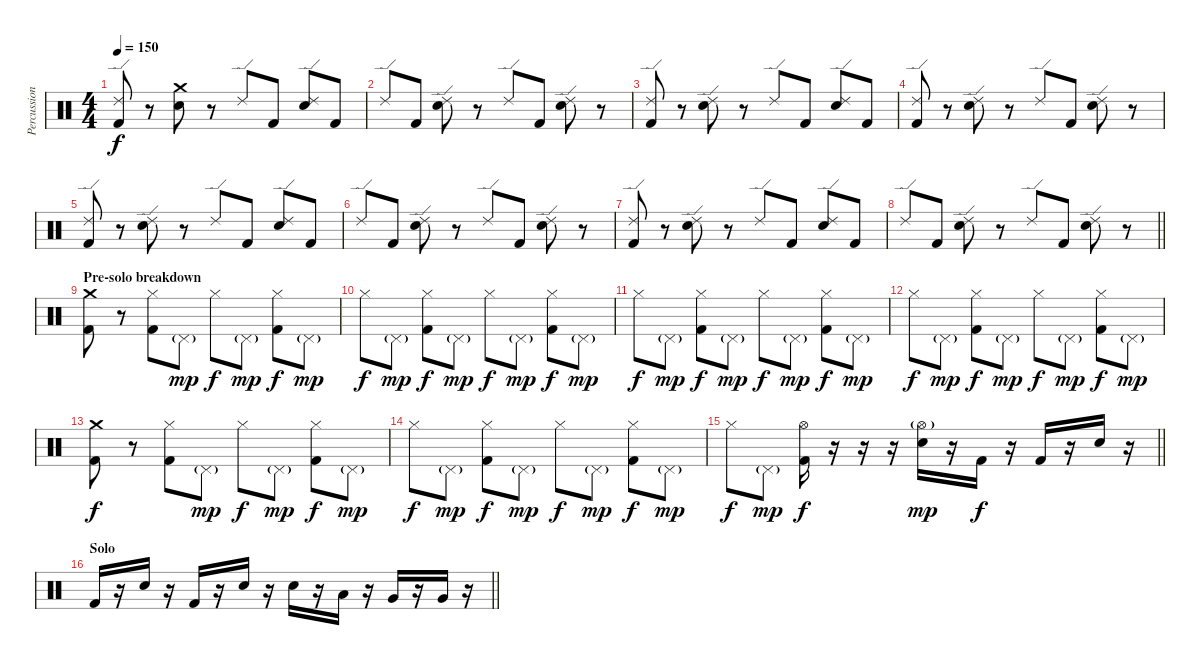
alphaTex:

\track ("Percussion" "Percussion") {instrument percussion}
\staff {score}
\articulation defaults
\ts (4 4)
\tempo 150
\clef neutral
\ks c
("Ride (edge) 2" "Kick (hit) 2").8{dy f} r.8 ("Crash medium (hit)" "Electric Snare (hit)").8 r.8 "Ride (edge) 2".8 "Kick (hit) 2".8 ("Ride (edge) 2" "Electric Snare (hit)").8 "Kick (hit) 2".8 |
"Ride (edge) 2".8 "Kick (hit) 2".8 ("Ride (edge) 2" "Electric Snare (hit)").8 r.8 "Ride (edge) 2".8 "Kick (hit) 2".8 ("Ride (edge) 2" "Electric Snare (hit)").8 r.8 |
("Ride (edge) 2" "Kick (hit) 2").8 r.8 ("Ride (edge) 2" "Electric Snare (hit)").8 r.8 "Ride (edge) 2".8 "Kick (hit) 2".8 ("Ride (edge) 2" "Electric Snare (hit)").8 "Kick (hit) 2".8 |
("Ride (edge) 2" "Kick (hit) 2").8 r.8 ("Ride (edge) 2" "Electric Snare (hit)").8 r.8 "Ride (edge) 2".8 "Kick (hit) 2".8 ("Ride (edge) 2" "Electric Snare (hit)").8 r.8 |
("Ride (edge) 2" "Kick (hit) 2").8 r.8 ("Ride (edge) 2" "Electric Snare (hit)").8 r.8 "Ride (edge) 2".8 "Kick (hit) 2".8 ("Ride (edge) 2" "Electric Snare (hit)").8 "Kick (hit) 2".8 |
"Ride (edge) 2".8 "Kick (hit) 2".8 ("Ride (edge) 2" "Electric Snare (hit)").8 r.8 "Ride (edge) 2".8 "Kick (hit) 2".8 ("Ride (edge) 2" "Electric Snare (hit)").8 r.8 |
("Ride (edge) 2" "Kick (hit) 2").8 r.8 ("Ride (edge) 2" "Electric Snare (hit)").8 r.8 "Ride (edge) 2".8 "Kick (hit) 2".8 ("Ride (edge) 2" "Electric Snare (hit)").8 "Kick (hit) 2".8 |
\barLineRight lightlight "Ride (edge) 2".8 "Kick (hit) 2".8
("Ride (edge) 2" "Electric Snare (hit)").8 r.8 "Ride (edge) 2".8 "Kick (hit) 2".8 ("Ride (edge) 2" "Electric Snare (hit)").8 r.8 |
\section ("" "Pre-solo breakdown")
("Crash medium (hit)" "Kick (hit) 2").8 r.8 ("Hi-Hat (closed)" "Kick (hit) 2").8 "Pedal Hi-Hat (hit)"{g}.8{dy mp} "Hi-Hat (closed)".8{dy f} "Pedal Hi-Hat (hit)"{g}.8{dy mp} ("Hi-Hat (closed)" "Kick (hit) 2").8{dy f} "Pedal Hi-Hat (hit)"{g}.8{dy mp} |
"Hi-Hat (closed)".8{dy f} "Pedal Hi-Hat (hit)"{g}.8{dy mp} ("Hi-Hat (closed)" "Kick (hit) 2").8{dy f} "Pedal Hi-Hat (hit)"{g}.8{dy mp} "Hi-Hat (closed)".8{dy f} "Pedal Hi-Hat (hit)"{g}.8{dy mp} ("Hi-Hat (closed)" "Kick (hit) 2").8{dy f} "Pedal Hi-Hat (hit)"{g}.8{dy mp} |
"Hi-Hat (closed)".8{dy f} "Pedal Hi-Hat (hit)"{g}.8{dy mp} ("Hi-Hat (closed)" "Kick (hit) 2").8{dy f} "Pedal Hi-Hat (hit)"{g}.8{dy mp} "Hi-Hat (closed)".8{dy f} "Pedal Hi-Hat (hit)"{g}.8{dy mp} ("Hi-Hat (closed)" "Kick (hit) 2").8{dy f} "Pedal Hi-Hat (hit)"{g}.8{dy mp} |
"Hi-Hat (closed)".8{dy f} "Pedal Hi-Hat (hit)"{g}.8{dy mp} ("Hi-Hat (closed)" "Kick (hit) 2").8{dy f} "Pedal Hi-Hat (hit)"{g}.8{dy mp} "Hi-Hat (closed)".8{dy f} "Pedal Hi-Hat (hit)"{g}.8{dy mp} ("Hi-Hat (closed)" "Kick (hit) 2").8{dy f} "Pedal Hi-Hat (hit)"{g}.8{dy mp} |
("Crash medium (hit)" "Kick (hit) 2").8{dy f} r.8 ("Hi-Hat (closed)" "Kick (hit) 2").8 "Pedal Hi-Hat (hit)"{g}.8{dy mp} "Hi-Hat (closed)".8{dy f} "Pedal Hi-Hat (hit)"{g}.8{dy mp} ("Hi-Hat (closed)" "Kick (hit) 2").8{dy f} "Pedal Hi-Hat (hit)"{g}.8{dy mp} |
"Hi-Hat (closed)".8{dy f} "Pedal Hi-Hat (hit)"{g}.8{dy mp} ("Hi-Hat (closed)" "Kick (hit) 2").8{dy f} "Pedal Hi-Hat (hit)"{g}.8{dy mp} "Hi-Hat (closed)".8{dy f} "Pedal Hi-Hat (hit)"{g}.8{dy mp} ("Hi-Hat (closed)" "Kick (hit) 2").8{dy f} "Pedal Hi-Hat (hit)"{g}.8{dy mp} |
\barLineRight lightlight "Hi-Hat (closed)".8{dy f} "Pedal Hi-Hat (hit)"{g}.8{dy mp}
("Hi-Hat (open)" "Kick (hit) 2").16{dy f} r.16 r.16 r.16 ("Hi-Hat (open)"{g} "Electric Snare (hit)").16{dy mp} r.16 "Kick (hit) 2".16{dy f} r.16 "Kick (hit) 2".16 r.16 "Electric Snare (hit)".16 r.16 |
\section ("" "Solo")
\barLineRight lightlight "Kick (hit) 2".16
r.16 "Electric Snare (hit)".16 r.16 "Kick (hit) 2".16 r.16 "Electric Snare (hit)".16 r.16 "Electric Snare (hit)".16 r.16 "Low Tom (hit)".16 r.16 "Very Low Tom (hit)".16 r.16 "Very Low Tom (hit)".16 r.16
